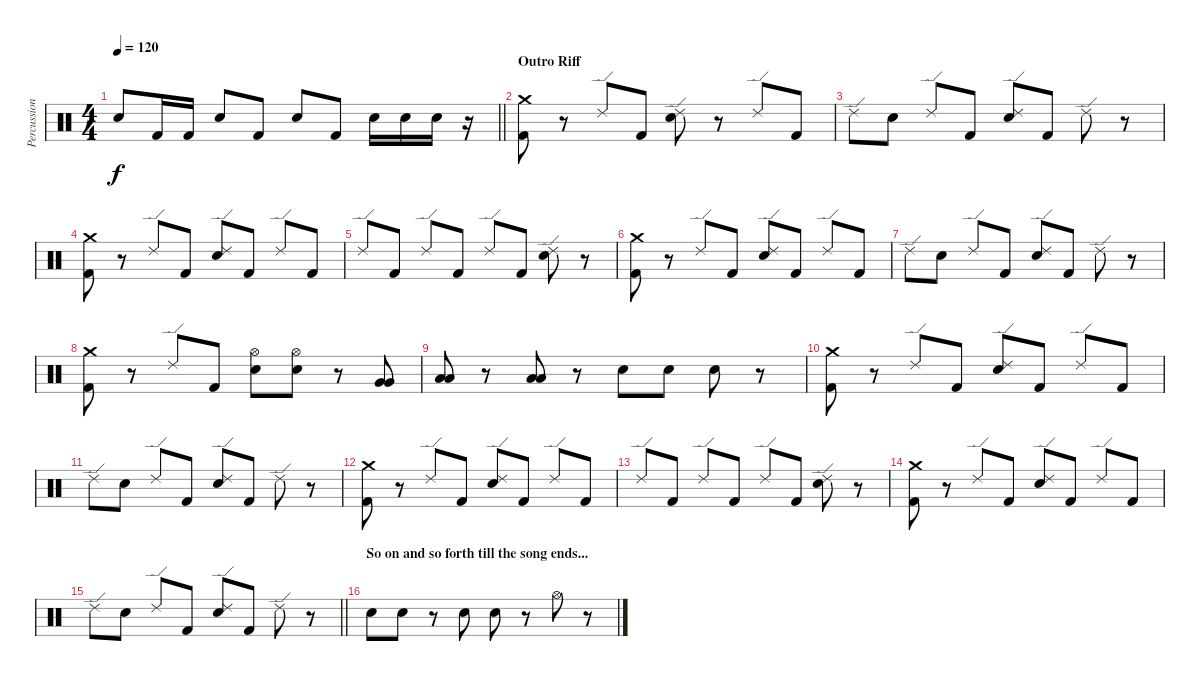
\track ("Percussion" "Percussion") {instrument percussion}
\staff {score}
\articulation defaults
\ts (4 4)
\tempo 120
\clef neutral
\barLineRight lightlight
\ks c "Electric Snare (hit)".8{dy f} "Kick (hit) 2".16 "Kick (hit) 2".16 "Electric Snare (hit)".8 "Kick (hit) 2".8 "Electric Snare (hit)".8 "Kick (hit) 2".8 "Electric Snare (hit)".16 "Electric Snare (hit)".16 "Electric Snare (hit)".16
r.16 |
\section ("" "Outro Riff")
("Kick (hit) 2" "Crash medium (hit)").8 r.8 "Ride (edge) 2".8 "Kick (hit) 2".8 ("Ride (edge) 2" "Electric Snare (hit)").8 r.8 "Ride (edge) 2".8 "Kick (hit) 2".8 |
"Ride (edge) 2".8 "Electric Snare (hit)".8 "Ride (edge) 2".8 "Kick (hit) 2".8 ("Ride (edge) 2" "Electric Snare (hit)").8 "Kick (hit) 2".8 "Ride (edge) 2".8 r.8 |
("Kick (hit) 2" "Crash medium (hit)").8 r.8 "Ride (edge) 2".8 "Kick (hit) 2".8 ("Ride (edge) 2" "Electric Snare (hit)").8 "Kick (hit) 2".8 "Ride (edge) 2".8 "Kick (hit) 2".8 |
"Ride (edge) 2".8 "Kick (hit) 2".8 "Ride (edge) 2".8 "Kick (hit) 2".8 "Ride (edge) 2".8 "Kick (hit) 2".8 ("Ride (edge) 2" "Electric Snare (hit)").8 r.8 |
("Kick (hit) 2" "Crash medium (hit)").8 r.8 "Ride (edge) 2".8 "Kick (hit) 2".8 ("Ride (edge) 2" "Electric Snare (hit)").8 "Kick (hit) 2".8 "Ride (edge) 2".8 "Kick (hit) 2".8 |
"Ride (edge) 2".8 "Electric Snare (hit)".8 "Ride (edge) 2".8 "Kick (hit) 2".8 ("Ride (edge) 2" "Electric Snare (hit)").8 "Kick (hit) 2".8 "Ride (edge) 2".8 r.8 |
("Crash medium (hit)" "Kick (hit) 2").8 r.8 "Ride (edge) 2".8 "Kick (hit) 2".8 ("Hi-Hat (open)" "Electric Snare (hit)").8 ("Hi-Hat (open)" "Electric Snare (hit)").8 r.8 ("Very Low Tom (hit)" "Very Low Tom (hit)").8 |
("Low Tom (hit)" "Low Tom (hit)").8 r.8 ("Low Tom (hit)" "Low Tom (hit)").8 r.8 "Electric Snare (hit)".8 "Electric Snare (hit)".8 "Electric Snare (hit)".8 r.8 |
("Kick (hit) 2" "Crash medium (hit)").8 r.8 "Ride (edge) 2".8 "Kick (hit) 2".8 ("Ride (edge) 2" "Electric Snare (hit)").8 "Kick (hit) 2".8 "Ride (edge) 2".8 "Kick (hit) 2".8 |
"Ride (edge) 2".8 "Electric Snare (hit)".8 "Ride (edge) 2".8 "Kick (hit) 2".8 ("Ride (edge) 2" "Electric Snare (hit)").8 "Kick (hit) 2".8 "Ride (edge) 2".8 r.8 |
("Kick (hit) 2" "Crash medium (hit)").8 r.8 "Ride (edge) 2".8 "Kick (hit) 2".8 ("Ride (edge) 2" "Electric Snare (hit)").8 "Kick (hit) 2".8 "Ride (edge) 2".8 "Kick (hit) 2".8 |
"Ride (edge) 2".8 "Kick (hit) 2".8 "Ride (edge) 2".8 "Kick (hit) 2".8 "Ride (edge) 2".8 "Kick (hit) 2".8 ("Ride (edge) 2" "Electric Snare (hit)").8 r.8 |
("Kick (hit) 2" "Crash medium (hit)").8 r.8 "Ride (edge) 2".8 "Kick (hit) 2".8 ("Ride (edge) 2" "Electric Snare (hit)").8 "Kick (hit) 2".8 "Ride (edge) 2".8 "Kick (hit) 2".8 |
\barLineRight lightlight "Ride (edge) 2".8 "Electric Snare (hit)".8 "Ride (edge) 2".8 "Kick (hit) 2".8
("Ride (edge) 2" "Electric Snare (hit)").8 "Kick (hit) 2".8 "Ride (edge) 2".8 r.8 |
\section ("" "So on and so forth till the song ends...")
"Electric Snare (hit)".8 "Electric Snare (hit)".8 r.8 "Electric Snare (hit)".8 "Electric Snare (hit)".8 r.8 "Hi-Hat (open)".8 r.8
